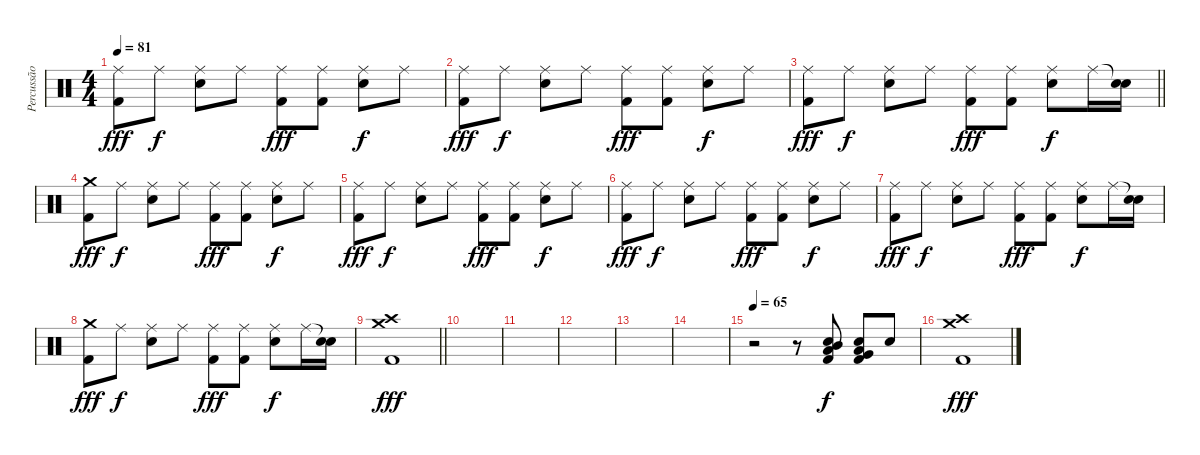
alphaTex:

\track ("Percussão" "Percussão") {instrument percussion}
\staff {score}
\articulation defaults
\ts (4 4)
\tempo 81
\clef neutral
\ks c
("Ride (middle)" "Kick (hit) 2").8{dy fff} "Ride (middle)".8{dy f} ("Ride (middle)" "Snare (hit) 2").8 "Ride (middle)".8 ("Ride (middle)" "Kick (hit) 2").8{dy fff} ("Ride (middle)" "Kick (hit) 2").8 ("Ride (middle)" "Snare (hit) 2").8{dy f} "Ride (middle)".8 |
("Ride (middle)" "Kick (hit) 2").8{dy fff} "Ride (middle)".8{dy f} ("Ride (middle)" "Snare (hit) 2").8 "Ride (middle)".8 ("Ride (middle)" "Kick (hit) 2").8{dy fff} ("Ride (middle)" "Kick (hit) 2").8 ("Ride (middle)" "Snare (hit) 2").8{dy f} "Ride (middle)".8 |
\barLineRight lightlight
("Ride (middle)" "Kick (hit) 2").8{dy fff} "Ride (middle)".8{dy f} ("Ride (middle)" "Snare (hit) 2").8 "Ride (middle)".8 ("Ride (middle)" "Kick (hit) 2").8{dy fff} ("Ride (middle)" "Kick (hit) 2").8 ("Ride (middle)" "Snare (hit) 2").8{dy f} "Ride (middle)".16 ("Snare (hit)"{t} "Snare (hit) 2").16 |
("Crash medium (hit)" "Kick (hit) 2").8{dy fff} "Ride (middle)".8{dy f} ("Ride (middle)" "Snare (hit) 2").8 "Ride (middle)".8 ("Ride (middle)" "Kick (hit) 2").8{dy fff} ("Ride (middle)" "Kick (hit) 2").8 ("Ride (middle)" "Snare (hit) 2").8{dy f} "Ride (middle)".8 |
("Ride (middle)" "Kick (hit) 2").8{dy fff} "Ride (middle)".8{dy f} ("Ride (middle)" "Snare (hit) 2").8 "Ride (middle)".8 ("Ride (middle)" "Kick (hit) 2").8{dy fff} ("Ride (middle)" "Kick (hit) 2").8 ("Ride (middle)" "Snare (hit) 2").8{dy f} "Ride (middle)".8 |
("Ride (middle)" "Kick (hit) 2").8{dy fff} "Ride (middle)".8{dy f} ("Ride (middle)" "Snare (hit) 2").8 "Ride (middle)".8 ("Ride (middle)" "Kick (hit) 2").8{dy fff} ("Ride (middle)" "Kick (hit) 2").8 ("Ride (middle)" "Snare (hit) 2").8{dy f} "Ride (middle)".8 |
("Ride (middle)" "Kick (hit) 2").8{dy fff} "Ride (middle)".8{dy f} ("Ride (middle)" "Snare (hit) 2").8 "Ride (middle)".8 ("Ride (middle)" "Kick (hit) 2").8{dy fff} ("Ride (middle)" "Kick (hit) 2").8 ("Ride (middle)" "Snare (hit) 2").8{dy f} "Ride (middle)".16 ("Snare (hit)"{t} "Snare (hit) 2").16 |
("Crash medium (hit)" "Kick (hit) 2").8{dy fff} "Ride (middle)".8{dy f} ("Ride (middle)" "Snare (hit) 2").8 "Ride (middle)".8 ("Ride (middle)" "Kick (hit) 2").8{dy fff} ("Ride (middle)" "Kick (hit) 2").8 ("Ride (middle)" "Snare (hit) 2").8{dy f} "Ride (middle)".16 ("Snare (hit)"{t} "Snare (hit) 2").16 |
\barLineRight lightlight
("Crash medium (hit)" "Crash high (hit)" "Kick (hit) 2").1{dy fff} |
|
|
|
|
|
\tempo 65
r.2 r.8 ("Kick (hit) 2" "Mid Tom (hit)" "Low Floor Tom (hit)" "Snare (hit) 2").8{dy f} ("Low Tom (hit)" "Very Low Tom (hit)" "Snare (hit) 2" "Kick (hit) 2").8 "Electric Snare (hit)".8 |
("Crash medium (hit)" "Crash high (hit)" "Kick (hit) 2").1{dy fff}
